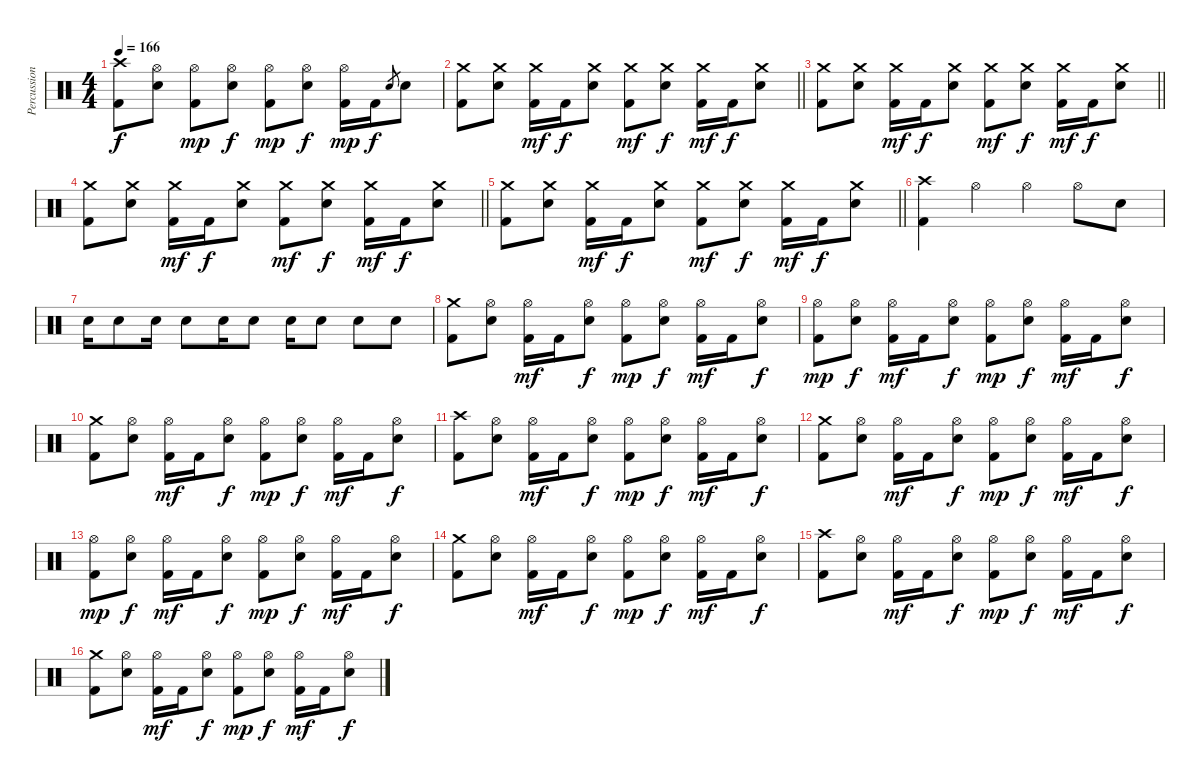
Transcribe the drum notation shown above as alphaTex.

\track ("Percussion" "Percussion") {instrument percussion}
\staff {score}
\articulation defaults
\ts (4 4)
\tempo 166
\clef neutral
\ks c
("Crash high (hit)" "Kick (hit) 2").8{dy f} ("Hi-Hat (open)" "Electric Snare (hit)").8 ("Hi-Hat (open)" "Kick (hit) 2").8{dy mp} ("Hi-Hat (open)" "Electric Snare (hit)").8{dy f} ("Hi-Hat (open)" "Kick (hit) 2").8{dy mp} ("Hi-Hat (open)" "Electric Snare (hit)").8{dy f} ("Hi-Hat (open)" "Kick (hit) 2").16{dy mp} "Kick (hit) 2".16{dy f} "Electric Snare (hit)".8{gr} "Electric Snare (hit)".8 |
\barLineRight lightlight
("Crash medium (hit)" "Kick (hit) 2").8 ("Crash medium (hit)" "Electric Snare (hit)").8 ("Crash medium (hit)" "Kick (hit) 2").16{dy mf} "Kick (hit) 2".16{dy f} ("Crash medium (hit)" "Electric Snare (hit)").8 ("Crash medium (hit)" "Kick (hit) 2").8{dy mf} ("Crash medium (hit)" "Electric Snare (hit)").8{dy f} ("Crash medium (hit)" "Kick (hit) 2").16{dy mf} "Kick (hit) 2".16{dy f} ("Crash medium (hit)" "Electric Snare (hit)").8 |
\barLineRight lightlight
("Crash medium (hit)" "Kick (hit) 2").8 ("Crash medium (hit)" "Electric Snare (hit)").8 ("Crash medium (hit)" "Kick (hit) 2").16{dy mf} "Kick (hit) 2".16{dy f} ("Crash medium (hit)" "Electric Snare (hit)").8 ("Crash medium (hit)" "Kick (hit) 2").8{dy mf} ("Crash medium (hit)" "Electric Snare (hit)").8{dy f} ("Crash medium (hit)" "Kick (hit) 2").16{dy mf} "Kick (hit) 2".16{dy f} ("Crash medium (hit)" "Electric Snare (hit)").8 |
\barLineRight lightlight
("Crash medium (hit)" "Kick (hit) 2").8 ("Crash medium (hit)" "Electric Snare (hit)").8 ("Crash medium (hit)" "Kick (hit) 2").16{dy mf} "Kick (hit) 2".16{dy f} ("Crash medium (hit)" "Electric Snare (hit)").8 ("Crash medium (hit)" "Kick (hit) 2").8{dy mf} ("Crash medium (hit)" "Electric Snare (hit)").8{dy f} ("Crash medium (hit)" "Kick (hit) 2").16{dy mf} "Kick (hit) 2".16{dy f} ("Crash medium (hit)" "Electric Snare (hit)").8 |
\barLineRight lightlight
("Crash medium (hit)" "Kick (hit) 2").8 ("Crash medium (hit)" "Electric Snare (hit)").8 ("Crash medium (hit)" "Kick (hit) 2").16{dy mf} "Kick (hit) 2".16{dy f} ("Crash medium (hit)" "Electric Snare (hit)").8 ("Crash medium (hit)" "Kick (hit) 2").8{dy mf} ("Crash medium (hit)" "Electric Snare (hit)").8{dy f} ("Crash medium (hit)" "Kick (hit) 2").16{dy mf} "Kick (hit) 2".16{dy f} ("Crash medium (hit)" "Electric Snare (hit)").8 |
("Crash high (hit)" "Kick (hit) 2").4 "Hi-Hat (open)".4 "Hi-Hat (open)".4 "Hi-Hat (open)".8 "Electric Snare (hit)".8 |
"Electric Snare (hit)".16 "Electric Snare (hit)".8 "Electric Snare (hit)".16 "Electric Snare (hit)".8 "Electric Snare (hit)".16 "Electric Snare (hit)".8 "Electric Snare (hit)".16 "Electric Snare (hit)".8 "Electric Snare (hit)".8 "Electric Snare (hit)".8 |
("Crash medium (hit)" "Kick (hit) 2").8 ("Hi-Hat (open)" "Electric Snare (hit)").8 ("Hi-Hat (open)" "Kick (hit) 2").16{dy mf} "Kick (hit) 2".16 ("Hi-Hat (open)" "Electric Snare (hit)").8{dy f} ("Hi-Hat (open)" "Kick (hit) 2").8{dy mp} ("Hi-Hat (open)" "Electric Snare (hit)").8{dy f} ("Hi-Hat (open)" "Kick (hit) 2").16{dy mf} "Kick (hit) 2".16 ("Hi-Hat (open)" "Electric Snare (hit)").8{dy f} |
("Hi-Hat (open)" "Kick (hit) 2").8{dy mp} ("Hi-Hat (open)" "Electric Snare (hit)").8{dy f} ("Hi-Hat (open)" "Kick (hit) 2").16{dy mf} "Kick (hit) 2".16 ("Hi-Hat (open)" "Electric Snare (hit)").8{dy f} ("Hi-Hat (open)" "Kick (hit) 2").8{dy mp} ("Hi-Hat (open)" "Electric Snare (hit)").8{dy f} ("Hi-Hat (open)" "Kick (hit) 2").16{dy mf} "Kick (hit) 2".16 ("Hi-Hat (open)" "Electric Snare (hit)").8{dy f} |
("Crash medium (hit)" "Kick (hit) 2").8 ("Hi-Hat (open)" "Electric Snare (hit)").8 ("Hi-Hat (open)" "Kick (hit) 2").16{dy mf} "Kick (hit) 2".16 ("Hi-Hat (open)" "Electric Snare (hit)").8{dy f} ("Hi-Hat (open)" "Kick (hit) 2").8{dy mp} ("Hi-Hat (open)" "Electric Snare (hit)").8{dy f} ("Hi-Hat (open)" "Kick (hit) 2").16{dy mf} "Kick (hit) 2".16 ("Hi-Hat (open)" "Electric Snare (hit)").8{dy f} |
("Crash high (hit)" "Kick (hit) 2").8 ("Hi-Hat (open)" "Electric Snare (hit)").8 ("Hi-Hat (open)" "Kick (hit) 2").16{dy mf} "Kick (hit) 2".16 ("Hi-Hat (open)" "Electric Snare (hit)").8{dy f} ("Hi-Hat (open)" "Kick (hit) 2").8{dy mp} ("Hi-Hat (open)" "Electric Snare (hit)").8{dy f} ("Hi-Hat (open)" "Kick (hit) 2").16{dy mf} "Kick (hit) 2".16 ("Hi-Hat (open)" "Electric Snare (hit)").8{dy f} |
("Crash medium (hit)" "Kick (hit) 2").8 ("Hi-Hat (open)" "Electric Snare (hit)").8 ("Hi-Hat (open)" "Kick (hit) 2").16{dy mf} "Kick (hit) 2".16 ("Hi-Hat (open)" "Electric Snare (hit)").8{dy f} ("Hi-Hat (open)" "Kick (hit) 2").8{dy mp} ("Hi-Hat (open)" "Electric Snare (hit)").8{dy f} ("Hi-Hat (open)" "Kick (hit) 2").16{dy mf} "Kick (hit) 2".16 ("Hi-Hat (open)" "Electric Snare (hit)").8{dy f} |
("Hi-Hat (open)" "Kick (hit) 2").8{dy mp} ("Hi-Hat (open)" "Electric Snare (hit)").8{dy f} ("Hi-Hat (open)" "Kick (hit) 2").16{dy mf} "Kick (hit) 2".16 ("Hi-Hat (open)" "Electric Snare (hit)").8{dy f} ("Hi-Hat (open)" "Kick (hit) 2").8{dy mp} ("Hi-Hat (open)" "Electric Snare (hit)").8{dy f} ("Hi-Hat (open)" "Kick (hit) 2").16{dy mf} "Kick (hit) 2".16 ("Hi-Hat (open)" "Electric Snare (hit)").8{dy f} |
("Crash medium (hit)" "Kick (hit) 2").8 ("Hi-Hat (open)" "Electric Snare (hit)").8 ("Hi-Hat (open)" "Kick (hit) 2").16{dy mf} "Kick (hit) 2".16 ("Hi-Hat (open)" "Electric Snare (hit)").8{dy f} ("Hi-Hat (open)" "Kick (hit) 2").8{dy mp} ("Hi-Hat (open)" "Electric Snare (hit)").8{dy f} ("Hi-Hat (open)" "Kick (hit) 2").16{dy mf} "Kick (hit) 2".16 ("Hi-Hat (open)" "Electric Snare (hit)").8{dy f} |
("Crash high (hit)" "Kick (hit) 2").8 ("Hi-Hat (open)" "Electric Snare (hit)").8 ("Hi-Hat (open)" "Kick (hit) 2").16{dy mf} "Kick (hit) 2".16 ("Hi-Hat (open)" "Electric Snare (hit)").8{dy f} ("Hi-Hat (open)" "Kick (hit) 2").8{dy mp} ("Hi-Hat (open)" "Electric Snare (hit)").8{dy f} ("Hi-Hat (open)" "Kick (hit) 2").16{dy mf} "Kick (hit) 2".16 ("Hi-Hat (open)" "Electric Snare (hit)").8{dy f} |
("Crash medium (hit)" "Kick (hit) 2").8 ("Hi-Hat (open)" "Electric Snare (hit)").8 ("Hi-Hat (open)" "Kick (hit) 2").16{dy mf} "Kick (hit) 2".16 ("Hi-Hat (open)" "Electric Snare (hit)").8{dy f} ("Hi-Hat (open)" "Kick (hit) 2").8{dy mp} ("Hi-Hat (open)" "Electric Snare (hit)").8{dy f} ("Hi-Hat (open)" "Kick (hit) 2").16{dy mf} "Kick (hit) 2".16 ("Hi-Hat (open)" "Electric Snare (hit)").8{dy f}
